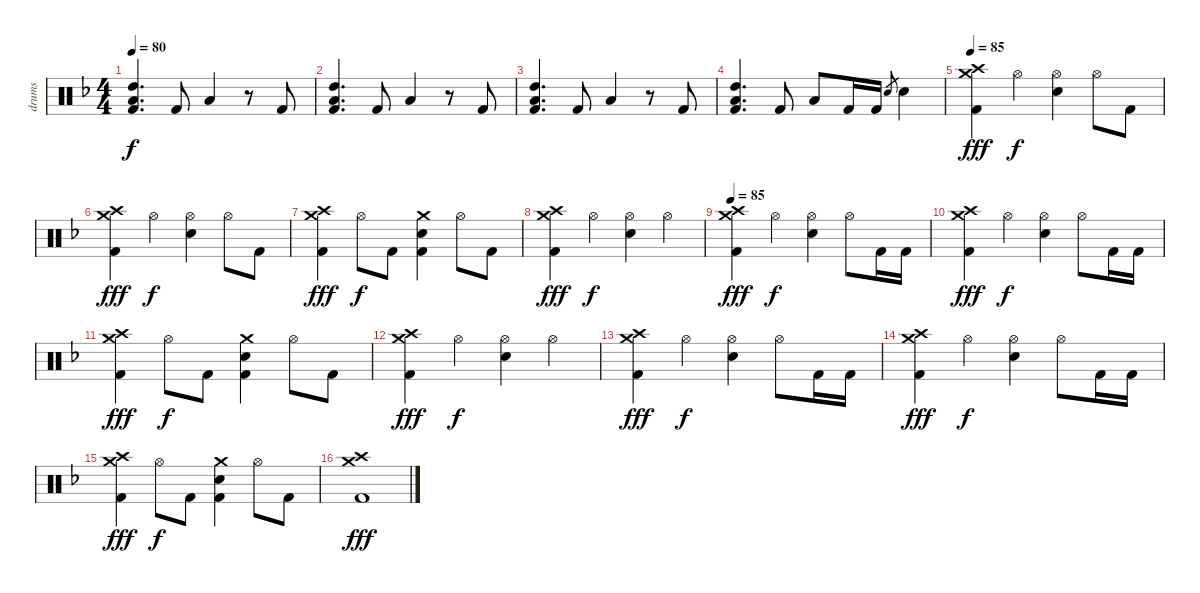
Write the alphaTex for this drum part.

\track ("drums" "drums") {instrument percussion}
\staff {score}
\articulation defaults
\ts (4 4)
\tempo 80
\clef neutral
\ks dminor
("High Tom (hit)" "Low Tom (hit)" "Kick (hit) 2").4{d dy f} "Kick (hit) 2".8 "Low Floor Tom (hit)".4 r.8 "Kick (hit) 2".8 |
("High Tom (hit)" "Low Tom (hit)" "Kick (hit) 2").4{d} "Kick (hit) 2".8 "Low Floor Tom (hit)".4 r.8 "Kick (hit) 2".8 |
("High Tom (hit)" "Low Tom (hit)" "Kick (hit) 2").4{d} "Kick (hit) 2".8 "Low Floor Tom (hit)".4 r.8 "Kick (hit) 2".8 |
("High Tom (hit)" "Low Tom (hit)" "Kick (hit) 2").4{d} "Kick (hit) 2".8 "Low Floor Tom (hit)".8 "Kick (hit) 2".16 "Kick (hit) 2".16 "Electric Snare (hit)".8{gr} "Electric Snare (hit)".4 |
\tempo 85
("Crash medium (hit)" "Crash high (hit)" "Kick (hit) 2").4{dy fff} "Hi-Hat (open)".4{dy f} ("Hi-Hat (open)" "Electric Snare (hit)").4 "Hi-Hat (open)".8 "Kick (hit) 2".8 |
("Crash medium (hit)" "Crash high (hit)" "Kick (hit) 2").4{dy fff} "Hi-Hat (open)".4{dy f} ("Hi-Hat (open)" "Electric Snare (hit)").4 "Hi-Hat (open)".8 "Kick (hit) 2".8 |
("Crash medium (hit)" "Crash high (hit)" "Kick (hit) 2").4{dy fff} "Hi-Hat (open)".8{dy f} "Kick (hit) 2".8 ("Crash medium (hit)" "Electric Snare (hit)" "Kick (hit) 2").4 "Hi-Hat (open)".8 "Kick (hit) 2".8 |
("Crash medium (hit)" "Crash high (hit)" "Kick (hit) 2").4{dy fff} "Hi-Hat (open)".4{dy f} ("Hi-Hat (open)" "Electric Snare (hit)").4 "Hi-Hat (open)".4 |
\tempo 85
("Crash medium (hit)" "Crash high (hit)" "Kick (hit) 2").4{dy fff} "Hi-Hat (open)".4{dy f} ("Hi-Hat (open)" "Electric Snare (hit)").4 "Hi-Hat (open)".8 "Kick (hit) 2".16 "Kick (hit) 2".16 |
("Crash medium (hit)" "Crash high (hit)" "Kick (hit) 2").4{dy fff} "Hi-Hat (open)".4{dy f} ("Hi-Hat (open)" "Electric Snare (hit)").4 "Hi-Hat (open)".8 "Kick (hit) 2".16 "Kick (hit) 2".16 |
("Crash medium (hit)" "Crash high (hit)" "Kick (hit) 2").4{dy fff} "Hi-Hat (open)".8{dy f} "Kick (hit) 2".8 ("Crash medium (hit)" "Electric Snare (hit)" "Kick (hit) 2").4 "Hi-Hat (open)".8 "Kick (hit) 2".8 |
("Crash medium (hit)" "Crash high (hit)" "Kick (hit) 2").4{dy fff} "Hi-Hat (open)".4{dy f} ("Hi-Hat (open)" "Electric Snare (hit)").4 "Hi-Hat (open)".4 |
("Crash medium (hit)" "Crash high (hit)" "Kick (hit) 2").4{dy fff} "Hi-Hat (open)".4{dy f} ("Hi-Hat (open)" "Electric Snare (hit)").4 "Hi-Hat (open)".8 "Kick (hit) 2".16 "Kick (hit) 2".16 |
("Crash medium (hit)" "Crash high (hit)" "Kick (hit) 2").4{dy fff} "Hi-Hat (open)".4{dy f} ("Hi-Hat (open)" "Electric Snare (hit)").4 "Hi-Hat (open)".8 "Kick (hit) 2".16 "Kick (hit) 2".16 |
("Crash medium (hit)" "Crash high (hit)" "Kick (hit) 2").4{dy fff} "Hi-Hat (open)".8{dy f} "Kick (hit) 2".8 ("Crash medium (hit)" "Electric Snare (hit)" "Kick (hit) 2").4 "Hi-Hat (open)".8 "Kick (hit) 2".8 |
("Crash medium (hit)" "Crash high (hit)" "Kick (hit) 2").1{dy fff}
